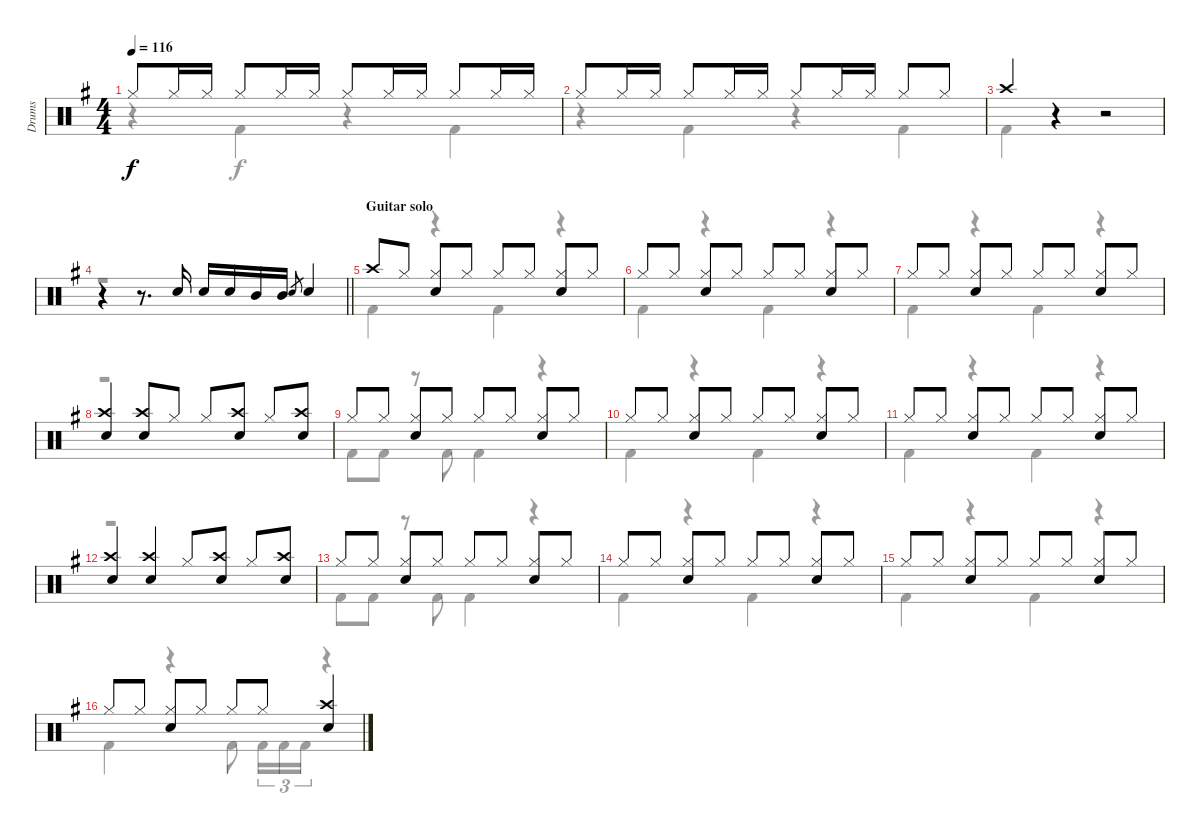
\track ("Drums" "Drums") {instrument percussion}
\staff {score}
\articulation defaults
\voice
\ts (4 4)
\tempo 116
\clef neutral
\ks g "Hi-Hat (closed)".8{dy f} "Hi-Hat (closed)".16 "Hi-Hat (closed)".16 "Hi-Hat (closed)".8 "Hi-Hat (closed)".16 "Hi-Hat (closed)".16 "Hi-Hat (closed)".8 "Hi-Hat (closed)".16 "Hi-Hat (closed)".16 "Hi-Hat (closed)".8 "Hi-Hat (closed)".16 "Hi-Hat (closed)".16
|
"Hi-Hat (closed)".8 "Hi-Hat (closed)".16 "Hi-Hat (closed)".16 "Hi-Hat (closed)".8 "Hi-Hat (closed)".16 "Hi-Hat (closed)".16 "Hi-Hat (closed)".8 "Hi-Hat (closed)".16 "Hi-Hat (closed)".16 "Hi-Hat (closed)".8 "Hi-Hat (closed)".8 |
"Crash high (hit)".4 r.4 r.2 |
\barLineRight lightlight
r.4 r.8{d} "Snare (hit) 2".16 "Snare (hit) 2".16 "Snare (hit) 2".16 "Mid Tom (hit)".16 "Mid Tom (hit)".16 "Snare (hit) 2".8{gr} "Snare (hit) 2".4 |
\section ("" "Guitar solo")
"Crash high (hit)".8 "Hi-Hat (closed)".8 ("Hi-Hat (closed)" "Snare (hit) 2").8 "Hi-Hat (closed)".8 "Hi-Hat (closed)".8 "Hi-Hat (closed)".8 ("Hi-Hat (closed)" "Snare (hit) 2").8 "Hi-Hat (closed)".8 |
"Hi-Hat (closed)".8 "Hi-Hat (closed)".8 ("Hi-Hat (closed)" "Snare (hit) 2").8 "Hi-Hat (closed)".8 "Hi-Hat (closed)".8 "Hi-Hat (closed)".8 ("Hi-Hat (closed)" "Snare (hit) 2").8 "Hi-Hat (closed)".8 |
"Hi-Hat (closed)".8 "Hi-Hat (closed)".8 ("Hi-Hat (closed)" "Snare (hit) 2").8 "Hi-Hat (closed)".8 "Hi-Hat (closed)".8 "Hi-Hat (closed)".8 ("Hi-Hat (closed)" "Snare (hit) 2").8 "Hi-Hat (closed)".8 |
("Crash high (hit)" "Snare (hit) 2").4 ("Crash high (hit)" "Snare (hit) 2").8 "Hi-Hat (closed)".8 "Hi-Hat (closed)".8 ("Crash high (hit)" "Snare (hit) 2").8 "Hi-Hat (closed)".8 ("Crash high (hit)" "Snare (hit) 2").8 |
"Hi-Hat (closed)".8 "Hi-Hat (closed)".8 ("Hi-Hat (closed)" "Snare (hit) 2").8 "Hi-Hat (closed)".8 "Hi-Hat (closed)".8 "Hi-Hat (closed)".8 ("Hi-Hat (closed)" "Snare (hit) 2").8 "Hi-Hat (closed)".8 |
"Hi-Hat (closed)".8 "Hi-Hat (closed)".8 ("Hi-Hat (closed)" "Snare (hit) 2").8 "Hi-Hat (closed)".8 "Hi-Hat (closed)".8 "Hi-Hat (closed)".8 ("Hi-Hat (closed)" "Snare (hit) 2").8 "Hi-Hat (closed)".8 |
"Hi-Hat (closed)".8 "Hi-Hat (closed)".8 ("Hi-Hat (closed)" "Snare (hit) 2").8 "Hi-Hat (closed)".8 "Hi-Hat (closed)".8 "Hi-Hat (closed)".8 ("Hi-Hat (closed)" "Snare (hit) 2").8 "Hi-Hat (closed)".8 |
("Crash high (hit)" "Snare (hit) 2").4 ("Crash high (hit)" "Snare (hit) 2").4 "Hi-Hat (closed)".8 ("Crash high (hit)" "Snare (hit) 2").8 "Hi-Hat (closed)".8 ("Crash high (hit)" "Snare (hit) 2").8 |
"Hi-Hat (closed)".8 "Hi-Hat (closed)".8 ("Hi-Hat (closed)" "Snare (hit) 2").8 "Hi-Hat (closed)".8 "Hi-Hat (closed)".8 "Hi-Hat (closed)".8 ("Hi-Hat (closed)" "Snare (hit) 2").8 "Hi-Hat (closed)".8 |
"Hi-Hat (closed)".8 "Hi-Hat (closed)".8 ("Hi-Hat (closed)" "Snare (hit) 2").8 "Hi-Hat (closed)".8 "Hi-Hat (closed)".8 "Hi-Hat (closed)".8 ("Hi-Hat (closed)" "Snare (hit) 2").8 "Hi-Hat (closed)".8 |
"Hi-Hat (closed)".8 "Hi-Hat (closed)".8 ("Hi-Hat (closed)" "Snare (hit) 2").8 "Hi-Hat (closed)".8 "Hi-Hat (closed)".8 "Hi-Hat (closed)".8 ("Hi-Hat (closed)" "Snare (hit) 2").8 "Hi-Hat (closed)".8 |
"Hi-Hat (closed)".8 "Hi-Hat (closed)".8 ("Hi-Hat (closed)" "Snare (hit) 2").8 "Hi-Hat (closed)".8 "Hi-Hat (closed)".8 "Hi-Hat (closed)".8 ("Crash high (hit)" "Snare (hit) 2").4
\voice
\clef neutral
\ottava regular
\simile none
\ks g
r.4{dy f} "Kick (hit) 2".4 r.4 "Kick (hit) 2".4 |
r.4 "Kick (hit) 2".4 r.4 "Kick (hit) 2".4 |
"Kick (hit) 2".4 r.4 r.2 |
\barLineRight lightlight
r.1 |
"Kick (hit) 2".4 r.4 "Kick (hit) 2".4 r.4 |
"Kick (hit) 2".4 r.4 "Kick (hit) 2".4 r.4 |
"Kick (hit) 2".4 r.4 "Kick (hit) 2".4 r.4 |
r.1 |
"Kick (hit) 2".8 "Kick (hit) 2".8 r.8 "Kick (hit) 2".8 "Kick (hit) 2".4 r.4 |
"Kick (hit) 2".4 r.4 "Kick (hit) 2".4 r.4 |
"Kick (hit) 2".4 r.4 "Kick (hit) 2".4 r.4 |
r.1 |
"Kick (hit) 2".8 "Kick (hit) 2".8 r.8 "Kick (hit) 2".8 "Kick (hit) 2".4 r.4 |
"Kick (hit) 2".4 r.4 "Kick (hit) 2".4 r.4 |
"Kick (hit) 2".4 r.4 "Kick (hit) 2".4 r.4 |
"Kick (hit) 2".4 r.4 "Kick (hit) 2".8 "Kick (hit) 2".16{tu (3 2)} "Kick (hit) 2".16{tu (3 2)} "Kick (hit) 2".16{tu (3 2)} r.4
